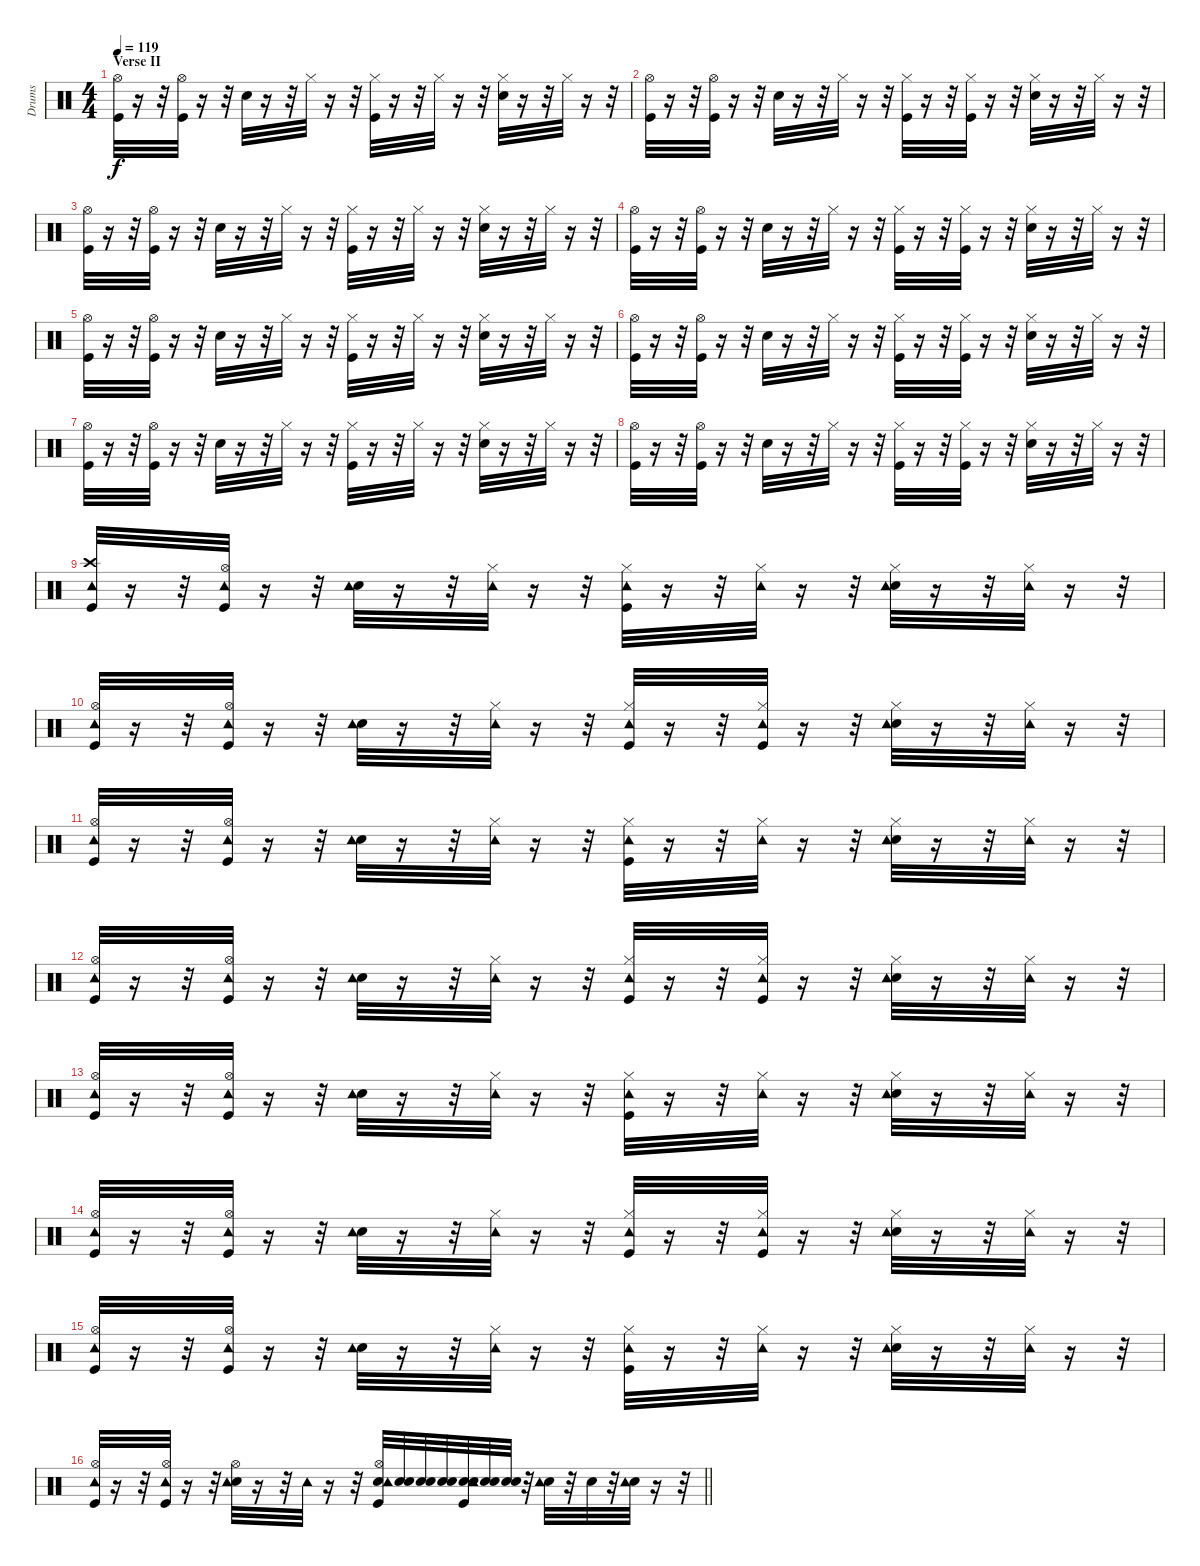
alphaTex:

\track ("Drums" "Drums") {instrument percussion}
\staff {score}
\articulation defaults
\ts (4 4)
\section ("" "Verse II")
\tempo 119
\clef neutral
\ks c
("Kick (hit)" "Hi-Hat (open)").32{dy f} r.16 r.32 ("Kick (hit)" "Hi-Hat (open)").32 r.16 r.32 "Electric Snare (hit)".32 r.16 r.32 "Hi-Hat (closed)".32 r.16 r.32 ("Kick (hit)" "Hi-Hat (closed)").32 r.16 r.32 "Hi-Hat (closed)".32 r.16 r.32 ("Electric Snare (hit)" "Hi-Hat (closed)").32 r.16 r.32 "Hi-Hat (closed)".32 r.16 r.32 |
("Kick (hit)" "Hi-Hat (open)").32 r.16 r.32 ("Kick (hit)" "Hi-Hat (open)").32 r.16 r.32 "Electric Snare (hit)".32 r.16 r.32 "Hi-Hat (closed)".32 r.16 r.32 ("Kick (hit)" "Hi-Hat (closed)").32 r.16 r.32 ("Kick (hit)" "Hi-Hat (closed)").32 r.16 r.32 ("Electric Snare (hit)" "Hi-Hat (closed)").32 r.16 r.32 "Hi-Hat (closed)".32 r.16 r.32 |
("Kick (hit)" "Hi-Hat (open)").32 r.16 r.32 ("Kick (hit)" "Hi-Hat (open)").32 r.16 r.32 "Electric Snare (hit)".32 r.16 r.32 "Hi-Hat (closed)".32 r.16 r.32 ("Kick (hit)" "Hi-Hat (closed)").32 r.16 r.32 "Hi-Hat (closed)".32 r.16 r.32 ("Electric Snare (hit)" "Hi-Hat (closed)").32 r.16 r.32 "Hi-Hat (closed)".32 r.16 r.32 |
("Kick (hit)" "Hi-Hat (open)").32 r.16 r.32 ("Kick (hit)" "Hi-Hat (open)").32 r.16 r.32 "Electric Snare (hit)".32 r.16 r.32 "Hi-Hat (closed)".32 r.16 r.32 ("Kick (hit)" "Hi-Hat (closed)").32 r.16 r.32 ("Kick (hit)" "Hi-Hat (closed)").32 r.16 r.32 ("Electric Snare (hit)" "Hi-Hat (closed)").32 r.16 r.32 "Hi-Hat (closed)".32 r.16 r.32 |
("Kick (hit)" "Hi-Hat (open)").32 r.16 r.32 ("Kick (hit)" "Hi-Hat (open)").32 r.16 r.32 "Electric Snare (hit)".32 r.16 r.32 "Hi-Hat (closed)".32 r.16 r.32 ("Kick (hit)" "Hi-Hat (closed)").32 r.16 r.32 "Hi-Hat (closed)".32 r.16 r.32 ("Electric Snare (hit)" "Hi-Hat (closed)").32 r.16 r.32 "Hi-Hat (closed)".32 r.16 r.32 |
("Kick (hit)" "Hi-Hat (open)").32 r.16 r.32 ("Kick (hit)" "Hi-Hat (open)").32 r.16 r.32 "Electric Snare (hit)".32 r.16 r.32 "Hi-Hat (closed)".32 r.16 r.32 ("Kick (hit)" "Hi-Hat (closed)").32 r.16 r.32 ("Kick (hit)" "Hi-Hat (closed)").32 r.16 r.32 ("Electric Snare (hit)" "Hi-Hat (closed)").32 r.16 r.32 "Hi-Hat (closed)".32 r.16 r.32 |
("Kick (hit)" "Hi-Hat (open)").32 r.16 r.32 ("Kick (hit)" "Hi-Hat (open)").32 r.16 r.32 "Electric Snare (hit)".32 r.16 r.32 "Hi-Hat (closed)".32 r.16 r.32 ("Kick (hit)" "Hi-Hat (closed)").32 r.16 r.32 "Hi-Hat (closed)".32 r.16 r.32 ("Electric Snare (hit)" "Hi-Hat (closed)").32 r.16 r.32 "Hi-Hat (closed)".32 r.16 r.32 |
("Kick (hit)" "Hi-Hat (open)").32 r.16 r.32 ("Kick (hit)" "Hi-Hat (open)").32 r.16 r.32 "Electric Snare (hit)".32 r.16 r.32 "Hi-Hat (closed)".32 r.16 r.32 ("Kick (hit)" "Hi-Hat (closed)").32 r.16 r.32 ("Kick (hit)" "Hi-Hat (closed)").32 r.16 r.32 ("Electric Snare (hit)" "Hi-Hat (closed)").32 r.16 r.32 "Hi-Hat (closed)".32 r.16 r.32 |
("Kick (hit)" "Crash high (hit)" "Tambourine (hit)").32 r.16 r.32 ("Kick (hit)" "Hi-Hat (open)" "Tambourine (hit)").32 r.16 r.32 ("Electric Snare (hit)" "Tambourine (hit)").32 r.16 r.32 ("Hi-Hat (closed)" "Tambourine (hit)").32 r.16 r.32 ("Kick (hit)" "Hi-Hat (closed)" "Tambourine (hit)").32 r.16 r.32 ("Hi-Hat (closed)" "Tambourine (hit)").32 r.16 r.32 ("Electric Snare (hit)" "Hi-Hat (closed)" "Tambourine (hit)").32 r.16 r.32 ("Hi-Hat (closed)" "Tambourine (hit)").32 r.16 r.32 |
("Kick (hit)" "Hi-Hat (open)" "Tambourine (hit)").32 r.16 r.32 ("Kick (hit)" "Hi-Hat (open)" "Tambourine (hit)").32 r.16 r.32 ("Electric Snare (hit)" "Tambourine (hit)").32 r.16 r.32 ("Hi-Hat (closed)" "Tambourine (hit)").32 r.16 r.32 ("Kick (hit)" "Hi-Hat (closed)" "Tambourine (hit)").32 r.16 r.32 ("Kick (hit)" "Hi-Hat (closed)" "Tambourine (hit)").32 r.16 r.32 ("Electric Snare (hit)" "Hi-Hat (closed)" "Tambourine (hit)").32 r.16 r.32 ("Hi-Hat (closed)" "Tambourine (hit)").32 r.16 r.32 |
("Kick (hit)" "Hi-Hat (open)" "Tambourine (hit)").32 r.16 r.32 ("Kick (hit)" "Hi-Hat (open)" "Tambourine (hit)").32 r.16 r.32 ("Electric Snare (hit)" "Tambourine (hit)").32 r.16 r.32 ("Hi-Hat (closed)" "Tambourine (hit)").32 r.16 r.32 ("Kick (hit)" "Hi-Hat (closed)" "Tambourine (hit)").32 r.16 r.32 ("Hi-Hat (closed)" "Tambourine (hit)").32 r.16 r.32 ("Electric Snare (hit)" "Hi-Hat (closed)" "Tambourine (hit)").32 r.16 r.32 ("Hi-Hat (closed)" "Tambourine (hit)").32 r.16 r.32 |
("Kick (hit)" "Hi-Hat (open)" "Tambourine (hit)").32 r.16 r.32 ("Kick (hit)" "Hi-Hat (open)" "Tambourine (hit)").32 r.16 r.32 ("Electric Snare (hit)" "Tambourine (hit)").32 r.16 r.32 ("Hi-Hat (closed)" "Tambourine (hit)").32 r.16 r.32 ("Kick (hit)" "Hi-Hat (closed)" "Tambourine (hit)").32 r.16 r.32 ("Kick (hit)" "Hi-Hat (closed)" "Tambourine (hit)").32 r.16 r.32 ("Electric Snare (hit)" "Hi-Hat (closed)" "Tambourine (hit)").32 r.16 r.32 ("Hi-Hat (closed)" "Tambourine (hit)").32 r.16 r.32 |
("Kick (hit)" "Hi-Hat (open)" "Tambourine (hit)").32 r.16 r.32 ("Kick (hit)" "Hi-Hat (open)" "Tambourine (hit)").32 r.16 r.32 ("Electric Snare (hit)" "Tambourine (hit)").32 r.16 r.32 ("Hi-Hat (closed)" "Tambourine (hit)").32 r.16 r.32 ("Kick (hit)" "Hi-Hat (closed)" "Tambourine (hit)").32 r.16 r.32 ("Hi-Hat (closed)" "Tambourine (hit)").32 r.16 r.32 ("Electric Snare (hit)" "Hi-Hat (closed)" "Tambourine (hit)").32 r.16 r.32 ("Hi-Hat (closed)" "Tambourine (hit)").32 r.16 r.32 |
("Kick (hit)" "Hi-Hat (open)" "Tambourine (hit)").32 r.16 r.32 ("Kick (hit)" "Hi-Hat (open)" "Tambourine (hit)").32 r.16 r.32 ("Electric Snare (hit)" "Tambourine (hit)").32 r.16 r.32 ("Hi-Hat (closed)" "Tambourine (hit)").32 r.16 r.32 ("Kick (hit)" "Hi-Hat (closed)" "Tambourine (hit)").32 r.16 r.32 ("Kick (hit)" "Hi-Hat (closed)" "Tambourine (hit)").32 r.16 r.32 ("Electric Snare (hit)" "Hi-Hat (closed)" "Tambourine (hit)").32 r.16 r.32 ("Hi-Hat (closed)" "Tambourine (hit)").32 r.16 r.32 |
("Kick (hit)" "Hi-Hat (open)" "Tambourine (hit)").32 r.16 r.32 ("Kick (hit)" "Hi-Hat (open)" "Tambourine (hit)").32 r.16 r.32 ("Electric Snare (hit)" "Tambourine (hit)").32 r.16 r.32 ("Hi-Hat (closed)" "Tambourine (hit)").32 r.16 r.32 ("Kick (hit)" "Hi-Hat (closed)" "Tambourine (hit)").32 r.16 r.32 ("Hi-Hat (closed)" "Tambourine (hit)").32 r.16 r.32 ("Electric Snare (hit)" "Hi-Hat (closed)" "Tambourine (hit)").32 r.16 r.32 ("Hi-Hat (closed)" "Tambourine (hit)").32 r.16 r.32 |
\barLineRight lightlight
("Kick (hit)" "Hi-Hat (open)" "Tambourine (hit)").32 r.16 r.32 ("Kick (hit)" "Hi-Hat (open)" "Tambourine (hit)").32 r.16 r.32 ("Electric Snare (hit)" "Hi-Hat (open)" "Tambourine (hit)").32 r.16 r.32 "Tambourine (hit)".32 r.16 r.32 ("Kick (hit)" "Electric Snare (hit)" "Hi-Hat (open)" "Tambourine (hit)").32 ("Snare (hit)" "Electric Snare (hit)").32 ("Snare (hit)" "Electric Snare (hit)").32 ("Snare (hit)" "Electric Snare (hit)").32 ("Snare (hit)" "Kick (hit)" "Electric Snare (hit)" "Tambourine (hit)").32 ("Snare (hit)" "Electric Snare (hit)").32 ("Snare (hit)" "Electric Snare (hit)").32 r.32 ("Electric Snare (hit)" "Tambourine (hit)").32 r.32 "Electric Snare (hit)".32 r.32 ("Electric Snare (hit)" "Tambourine (hit)").32 r.16 r.32
